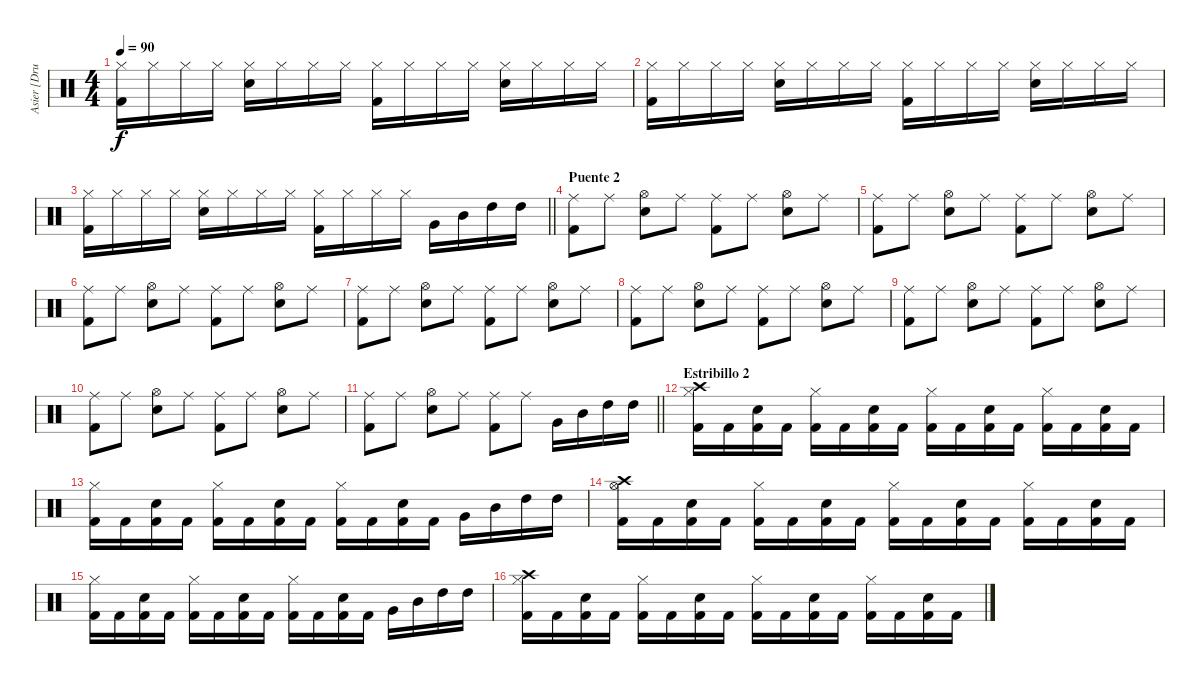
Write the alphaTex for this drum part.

\track ("Asier [Drums]" "Asier [Dru") {instrument percussion}
\staff {score}
\articulation defaults
\ts (4 4)
\tempo 90
\clef neutral
\ks c
("Hi-Hat (closed)" "Kick (hit) 2").16{dy f} "Hi-Hat (closed)".16 "Hi-Hat (closed)".16 "Hi-Hat (closed)".16 ("Hi-Hat (closed)" "Snare (hit) 2").16 "Hi-Hat (closed)".16 "Hi-Hat (closed)".16 "Hi-Hat (closed)".16 ("Hi-Hat (closed)" "Kick (hit) 2").16 "Hi-Hat (closed)".16 "Hi-Hat (closed)".16 "Hi-Hat (closed)".16 ("Hi-Hat (closed)" "Snare (hit) 2").16 "Hi-Hat (closed)".16 "Hi-Hat (closed)".16 "Hi-Hat (closed)".16 |
("Hi-Hat (closed)" "Kick (hit) 2").16 "Hi-Hat (closed)".16 "Hi-Hat (closed)".16 "Hi-Hat (closed)".16 ("Hi-Hat (closed)" "Snare (hit) 2").16 "Hi-Hat (closed)".16 "Hi-Hat (closed)".16 "Hi-Hat (closed)".16 ("Hi-Hat (closed)" "Kick (hit) 2").16 "Hi-Hat (closed)".16 "Hi-Hat (closed)".16 "Hi-Hat (closed)".16 ("Hi-Hat (closed)" "Snare (hit) 2").16 "Hi-Hat (closed)".16 "Hi-Hat (closed)".16 "Hi-Hat (closed)".16 |
\barLineRight lightlight
("Hi-Hat (closed)" "Kick (hit) 2").16 "Hi-Hat (closed)".16 "Hi-Hat (closed)".16 "Hi-Hat (closed)".16 ("Hi-Hat (closed)" "Snare (hit) 2").16 "Hi-Hat (closed)".16 "Hi-Hat (closed)".16 "Hi-Hat (closed)".16 ("Hi-Hat (closed)" "Kick (hit) 2").16 "Hi-Hat (closed)".16 "Hi-Hat (closed)".16 "Hi-Hat (closed)".16 "Very Low Tom (hit)".16 "Mid Tom (hit)".16 "High Tom (hit)".16 "High Tom (hit)".16 |
\section ("" "Puente 2")
("Ride (middle)" "Kick (hit) 2").8 "Ride (middle)".8 ("Hi-Hat (open)" "Snare (hit) 2").8 "Ride (middle)".8 ("Ride (middle)" "Kick (hit) 2").8 "Ride (middle)".8 ("Hi-Hat (open)" "Snare (hit) 2").8 "Ride (middle)".8 |
("Ride (middle)" "Kick (hit) 2").8 "Ride (middle)".8 ("Hi-Hat (open)" "Snare (hit) 2").8 "Ride (middle)".8 ("Ride (middle)" "Kick (hit) 2").8 "Ride (middle)".8 ("Hi-Hat (open)" "Snare (hit) 2").8 "Ride (middle)".8 |
("Ride (middle)" "Kick (hit) 2").8 "Ride (middle)".8 ("Hi-Hat (open)" "Snare (hit) 2").8 "Ride (middle)".8 ("Ride (middle)" "Kick (hit) 2").8 "Ride (middle)".8 ("Hi-Hat (open)" "Snare (hit) 2").8 "Ride (middle)".8 |
("Ride (middle)" "Kick (hit) 2").8 "Ride (middle)".8 ("Hi-Hat (open)" "Snare (hit) 2").8 "Ride (middle)".8 ("Ride (middle)" "Kick (hit) 2").8 "Ride (middle)".8 ("Hi-Hat (open)" "Snare (hit) 2").8 "Ride (middle)".8 |
("Ride (middle)" "Kick (hit) 2").8 "Ride (middle)".8 ("Hi-Hat (open)" "Snare (hit) 2").8 "Ride (middle)".8 ("Ride (middle)" "Kick (hit) 2").8 "Ride (middle)".8 ("Hi-Hat (open)" "Snare (hit) 2").8 "Ride (middle)".8 |
("Ride (middle)" "Kick (hit) 2").8 "Ride (middle)".8 ("Hi-Hat (open)" "Snare (hit) 2").8 "Ride (middle)".8 ("Ride (middle)" "Kick (hit) 2").8 "Ride (middle)".8 ("Hi-Hat (open)" "Snare (hit) 2").8 "Ride (middle)".8 |
("Ride (middle)" "Kick (hit) 2").8 "Ride (middle)".8 ("Hi-Hat (open)" "Snare (hit) 2").8 "Ride (middle)".8 ("Ride (middle)" "Kick (hit) 2").8 "Ride (middle)".8 ("Hi-Hat (open)" "Snare (hit) 2").8 "Ride (middle)".8 |
\barLineRight lightlight
("Ride (middle)" "Kick (hit) 2").8 "Ride (middle)".8 ("Hi-Hat (open)" "Snare (hit) 2").8 "Ride (middle)".8 ("Ride (middle)" "Kick (hit) 2").8 "Ride (middle)".8 "Very Low Tom (hit)".16 "Mid Tom (hit)".16 "High Tom (hit)".16 "High Tom (hit)".16 |
\section ("" "Estribillo 2")
("Crash high (hit)" "Hi-Hat (closed)" "Kick (hit) 2").16 "Kick (hit) 2".16 ("Snare (hit) 2" "Kick (hit) 2").16 "Kick (hit) 2".16 ("Hi-Hat (closed)" "Kick (hit) 2").16 "Kick (hit) 2".16 ("Snare (hit) 2" "Kick (hit) 2").16 "Kick (hit) 2".16 ("Hi-Hat (closed)" "Kick (hit) 2").16 "Kick (hit) 2".16 ("Snare (hit) 2" "Kick (hit) 2").16 "Kick (hit) 2".16 ("Hi-Hat (closed)" "Kick (hit) 2").16 "Kick (hit) 2".16 ("Snare (hit) 2" "Kick (hit) 2").16 "Kick (hit) 2".16 |
("Hi-Hat (closed)" "Kick (hit) 2").16 "Kick (hit) 2".16 ("Snare (hit) 2" "Kick (hit) 2").16 "Kick (hit) 2".16 ("Hi-Hat (closed)" "Kick (hit) 2").16 "Kick (hit) 2".16 ("Snare (hit) 2" "Kick (hit) 2").16 "Kick (hit) 2".16 ("Hi-Hat (closed)" "Kick (hit) 2").16 "Kick (hit) 2".16 ("Snare (hit) 2" "Kick (hit) 2").16 "Kick (hit) 2".16 "Very Low Tom (hit)".16 "Mid Tom (hit)".16 "High Tom (hit)".16 "High Tom (hit)".16 |
("Crash high (hit)" "Hi-Hat (open)" "Kick (hit) 2").16 "Kick (hit) 2".16 ("Snare (hit) 2" "Kick (hit) 2").16 "Kick (hit) 2".16 ("Hi-Hat (closed)" "Kick (hit) 2").16 "Kick (hit) 2".16 ("Snare (hit) 2" "Kick (hit) 2").16 "Kick (hit) 2".16 ("Hi-Hat (closed)" "Kick (hit) 2").16 "Kick (hit) 2".16 ("Snare (hit) 2" "Kick (hit) 2").16 "Kick (hit) 2".16 ("Hi-Hat (closed)" "Kick (hit) 2").16 "Kick (hit) 2".16 ("Snare (hit) 2" "Kick (hit) 2").16 "Kick (hit) 2".16 |
("Hi-Hat (closed)" "Kick (hit) 2").16 "Kick (hit) 2".16 ("Snare (hit) 2" "Kick (hit) 2").16 "Kick (hit) 2".16 ("Hi-Hat (closed)" "Kick (hit) 2").16 "Kick (hit) 2".16 ("Snare (hit) 2" "Kick (hit) 2").16 "Kick (hit) 2".16 ("Hi-Hat (closed)" "Kick (hit) 2").16 "Kick (hit) 2".16 ("Snare (hit) 2" "Kick (hit) 2").16 "Kick (hit) 2".16 "Very Low Tom (hit)".16 "Mid Tom (hit)".16 "High Tom (hit)".16 "High Tom (hit)".16 |
("Crash high (hit)" "Hi-Hat (closed)" "Kick (hit) 2").16 "Kick (hit) 2".16 ("Snare (hit) 2" "Kick (hit) 2").16 "Kick (hit) 2".16 ("Hi-Hat (closed)" "Kick (hit) 2").16 "Kick (hit) 2".16 ("Snare (hit) 2" "Kick (hit) 2").16 "Kick (hit) 2".16 ("Hi-Hat (closed)" "Kick (hit) 2").16 "Kick (hit) 2".16 ("Snare (hit) 2" "Kick (hit) 2").16 "Kick (hit) 2".16 ("Hi-Hat (closed)" "Kick (hit) 2").16 "Kick (hit) 2".16 ("Snare (hit) 2" "Kick (hit) 2").16 "Kick (hit) 2".16
